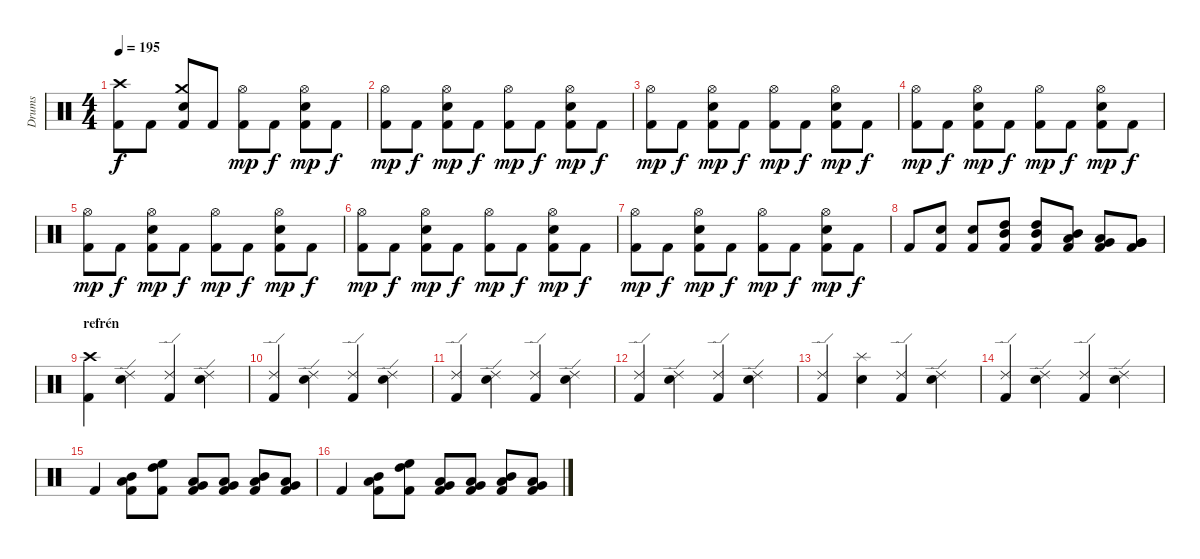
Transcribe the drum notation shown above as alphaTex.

\track ("Drums" "Drums") {instrument percussion}
\staff {score}
\articulation defaults
\ts (4 4)
\tempo 195
\clef neutral
\ks c
("Crash high (hit)" "Kick (hit) 2").8{dy f} "Kick (hit) 2".8 ("Crash medium (hit)" "Snare (hit) 2" "Kick (hit) 2").8 "Kick (hit) 2".8 ("Hi-Hat (open)" "Kick (hit) 2").8{dy mp} "Kick (hit) 2".8{dy f} ("Hi-Hat (open)" "Snare (hit) 2" "Kick (hit) 2").8{dy mp} "Kick (hit) 2".8{dy f} |
("Hi-Hat (open)" "Kick (hit) 2").8{dy mp} "Kick (hit) 2".8{dy f} ("Hi-Hat (open)" "Snare (hit) 2" "Kick (hit) 2").8{dy mp} "Kick (hit) 2".8{dy f} ("Hi-Hat (open)" "Kick (hit) 2").8{dy mp} "Kick (hit) 2".8{dy f} ("Hi-Hat (open)" "Snare (hit) 2" "Kick (hit) 2").8{dy mp} "Kick (hit) 2".8{dy f} |
("Hi-Hat (open)" "Kick (hit) 2").8{dy mp} "Kick (hit) 2".8{dy f} ("Hi-Hat (open)" "Snare (hit) 2" "Kick (hit) 2").8{dy mp} "Kick (hit) 2".8{dy f} ("Hi-Hat (open)" "Kick (hit) 2").8{dy mp} "Kick (hit) 2".8{dy f} ("Hi-Hat (open)" "Snare (hit) 2" "Kick (hit) 2").8{dy mp} "Kick (hit) 2".8{dy f} |
("Hi-Hat (open)" "Kick (hit) 2").8{dy mp} "Kick (hit) 2".8{dy f} ("Hi-Hat (open)" "Snare (hit) 2" "Kick (hit) 2").8{dy mp} "Kick (hit) 2".8{dy f} ("Hi-Hat (open)" "Kick (hit) 2").8{dy mp} "Kick (hit) 2".8{dy f} ("Hi-Hat (open)" "Snare (hit) 2" "Kick (hit) 2").8{dy mp} "Kick (hit) 2".8{dy f} |
("Hi-Hat (open)" "Kick (hit) 2").8{dy mp} "Kick (hit) 2".8{dy f} ("Hi-Hat (open)" "Snare (hit) 2" "Kick (hit) 2").8{dy mp} "Kick (hit) 2".8{dy f} ("Hi-Hat (open)" "Kick (hit) 2").8{dy mp} "Kick (hit) 2".8{dy f} ("Hi-Hat (open)" "Snare (hit) 2" "Kick (hit) 2").8{dy mp} "Kick (hit) 2".8{dy f} |
("Hi-Hat (open)" "Kick (hit) 2").8{dy mp} "Kick (hit) 2".8{dy f} ("Hi-Hat (open)" "Snare (hit) 2" "Kick (hit) 2").8{dy mp} "Kick (hit) 2".8{dy f} ("Hi-Hat (open)" "Kick (hit) 2").8{dy mp} "Kick (hit) 2".8{dy f} ("Hi-Hat (open)" "Snare (hit) 2" "Kick (hit) 2").8{dy mp} "Kick (hit) 2".8{dy f} |
("Hi-Hat (open)" "Kick (hit) 2").8{dy mp} "Kick (hit) 2".8{dy f} ("Hi-Hat (open)" "Snare (hit) 2" "Kick (hit) 2").8{dy mp} "Kick (hit) 2".8{dy f} ("Hi-Hat (open)" "Kick (hit) 2").8{dy mp} "Kick (hit) 2".8{dy f} ("Hi-Hat (open)" "Snare (hit) 2" "Kick (hit) 2").8{dy mp} "Kick (hit) 2".8{dy f} |
"Kick (hit) 2".8 ("Snare (hit) 2" "Kick (hit) 2").8 ("Snare (hit) 2" "Kick (hit) 2").8 ("High Tom (hit)" "Mid Tom (hit)" "Kick (hit) 2").8 ("High Tom (hit)" "Mid Tom (hit)" "Kick (hit) 2").8 ("Mid Tom (hit)" "Low Tom (hit)" "Kick (hit) 2").8 ("Low Tom (hit)" "Very Low Tom (hit)" "Kick (hit) 2").8 ("Very Low Tom (hit)" "Very Low Tom (hit)" "Kick (hit) 2").8 |
\section ("" "refrén")
("Crash high (hit)" "Kick (hit) 2").4 ("Ride (edge) 2" "Snare (hit) 2").4 ("Ride (edge) 2" "Kick (hit) 2").4 ("Ride (edge) 2" "Snare (hit) 2").4 |
("Ride (edge) 2" "Kick (hit) 2").4 ("Ride (edge) 2" "Snare (hit) 2").4 ("Ride (edge) 2" "Kick (hit) 2").4 ("Ride (edge) 2" "Snare (hit) 2").4 |
("Ride (edge) 2" "Kick (hit) 2").4 ("Ride (edge) 2" "Snare (hit) 2").4 ("Ride (edge) 2" "Kick (hit) 2").4 ("Ride (edge) 2" "Snare (hit) 2").4 |
("Ride (edge) 2" "Kick (hit) 2").4 ("Ride (edge) 2" "Snare (hit) 2").4 ("Ride (edge) 2" "Kick (hit) 2").4 ("Ride (edge) 2" "Snare (hit) 2").4 |
("Ride (edge) 2" "Kick (hit) 2").4 ("Splash (hit)" "Snare (hit) 2").4 ("Ride (edge) 2" "Kick (hit) 2").4 ("Ride (edge) 2" "Snare (hit) 2").4 |
("Ride (edge) 2" "Kick (hit) 2").4 ("Ride (edge) 2" "Snare (hit) 2").4 ("Ride (edge) 2" "Kick (hit) 2").4 ("Ride (edge) 2" "Snare (hit) 2").4 |
"Kick (hit) 2".4 ("Mid Tom (hit)" "Low Tom (hit)" "Kick (hit) 2").8 ("High Tom (hit)" "High Floor Tom (hit)" "Kick (hit) 2").8 ("Low Tom (hit)" "Very Low Tom (hit)" "Kick (hit) 2").8 ("Low Tom (hit)" "Very Low Tom (hit)" "Kick (hit) 2").8 ("Mid Tom (hit)" "Low Tom (hit)" "Kick (hit) 2").8 ("Low Tom (hit)" "Very Low Tom (hit)" "Kick (hit) 2").8 |
"Kick (hit) 2".4 ("Mid Tom (hit)" "Low Tom (hit)" "Kick (hit) 2").8 ("High Tom (hit)" "High Floor Tom (hit)" "Kick (hit) 2").8 ("Low Tom (hit)" "Very Low Tom (hit)" "Kick (hit) 2").8 ("Low Tom (hit)" "Very Low Tom (hit)" "Kick (hit) 2").8 ("Mid Tom (hit)" "Low Tom (hit)" "Kick (hit) 2").8 ("Low Tom (hit)" "Very Low Tom (hit)" "Kick (hit) 2").8
